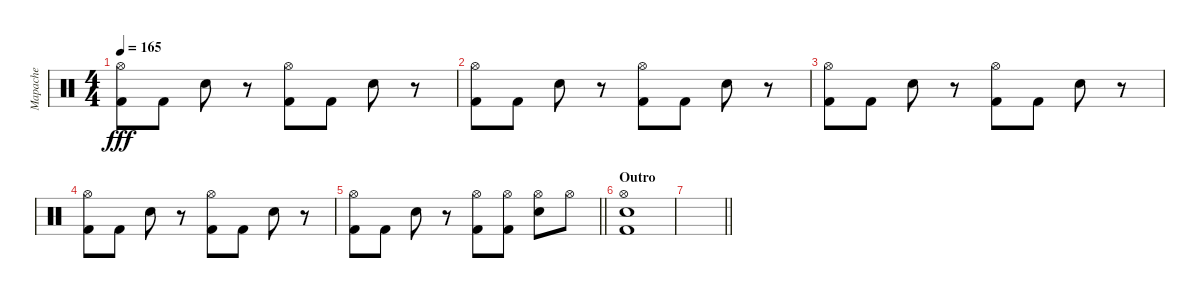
\track ("Mapache" "Mapache") {instrument percussion}
\staff
\articulation defaults
\ts (4 4)
\tempo 165
\clef neutral
\ks c
("Hi-Hat (open)" "Kick (hit) 2").8{dy fff} "Kick (hit) 2".8 "Electric Snare (hit)".8 r.8 ("Hi-Hat (open)" "Kick (hit) 2").8 "Kick (hit) 2".8 "Electric Snare (hit)".8 r.8 |
("Hi-Hat (open)" "Kick (hit) 2").8 "Kick (hit) 2".8 "Electric Snare (hit)".8 r.8 ("Hi-Hat (open)" "Kick (hit) 2").8 "Kick (hit) 2".8 "Electric Snare (hit)".8 r.8 |
("Hi-Hat (open)" "Kick (hit) 2").8 "Kick (hit) 2".8 "Electric Snare (hit)".8 r.8 ("Hi-Hat (open)" "Kick (hit) 2").8 "Kick (hit) 2".8 "Electric Snare (hit)".8 r.8 |
("Hi-Hat (open)" "Kick (hit) 2").8 "Kick (hit) 2".8 "Electric Snare (hit)".8 r.8 ("Hi-Hat (open)" "Kick (hit) 2").8 "Kick (hit) 2".8 "Electric Snare (hit)".8 r.8 |
\barLineRight lightlight
("Hi-Hat (open)" "Kick (hit) 2").8 "Kick (hit) 2".8 "Electric Snare (hit)".8 r.8 ("Hi-Hat (open)" "Kick (hit) 2").8 ("Hi-Hat (open)" "Kick (hit) 2").8 ("Hi-Hat (open)" "Electric Snare (hit)").8 "Hi-Hat (open)".8 |
\section ("" "Outro")
("Hi-Hat (open)" "Electric Snare (hit)" "Kick (hit) 2").1 |
\barLineRight lightlight
